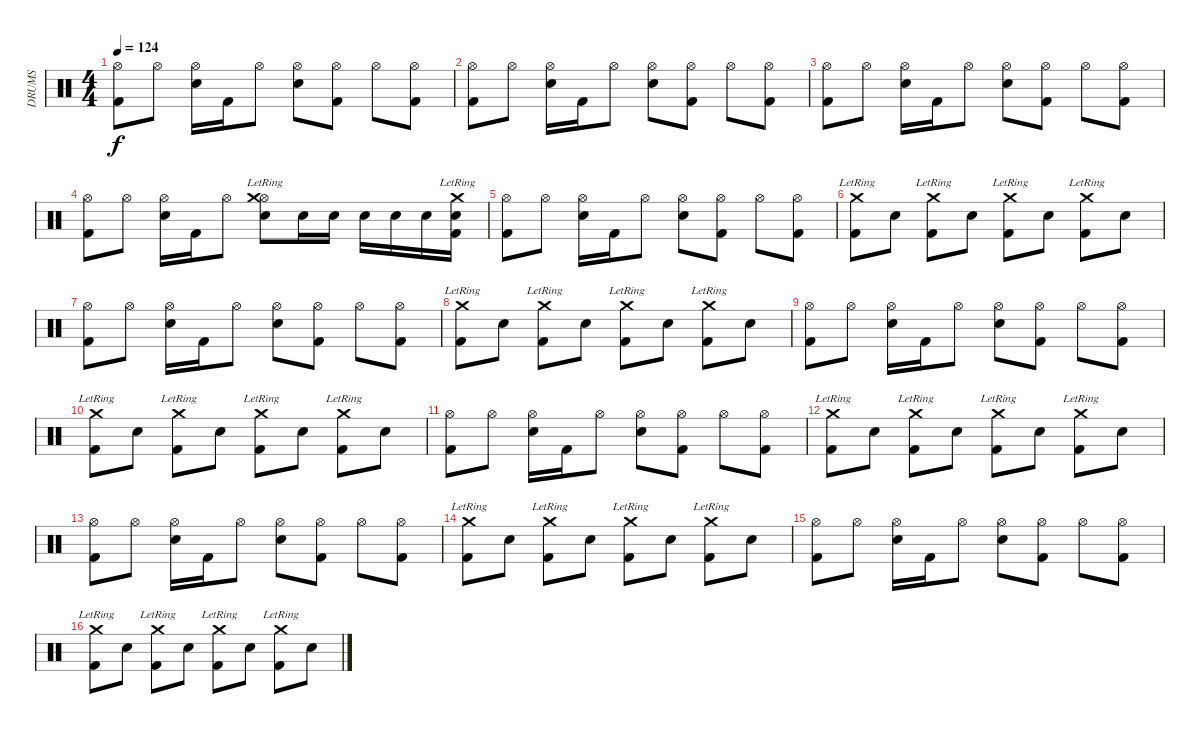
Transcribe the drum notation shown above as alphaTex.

\track ("DRUMS" "DRUMS") {instrument percussion}
\staff {score}
\articulation defaults
\ts (4 4)
\tempo 124
\clef neutral
\ks c
("Kick (hit) 2" "Hi-Hat (open)").8{dy f} "Hi-Hat (open)".8 ("Snare (hit) 2" "Hi-Hat (open)").16 "Kick (hit) 2".16 "Hi-Hat (open)".8 ("Snare (hit) 2" "Hi-Hat (open)").8 ("Kick (hit) 2" "Hi-Hat (open)").8 "Hi-Hat (open)".8 ("Kick (hit) 2" "Hi-Hat (open)").8 |
("Kick (hit) 2" "Hi-Hat (open)").8 "Hi-Hat (open)".8 ("Snare (hit) 2" "Hi-Hat (open)").16 "Kick (hit) 2".16 "Hi-Hat (open)".8 ("Snare (hit) 2" "Hi-Hat (open)").8 ("Kick (hit) 2" "Hi-Hat (open)").8 "Hi-Hat (open)".8 ("Kick (hit) 2" "Hi-Hat (open)").8 |
("Kick (hit) 2" "Hi-Hat (open)").8 "Hi-Hat (open)".8 ("Snare (hit) 2" "Hi-Hat (open)").16 "Kick (hit) 2".16 "Hi-Hat (open)".8 ("Snare (hit) 2" "Hi-Hat (open)").8 ("Kick (hit) 2" "Hi-Hat (open)").8 "Hi-Hat (open)".8 ("Kick (hit) 2" "Hi-Hat (open)").8 |
("Kick (hit) 2" "Hi-Hat (open)").8 "Hi-Hat (open)".8 ("Snare (hit) 2" "Hi-Hat (open)").16 "Kick (hit) 2".16 "Hi-Hat (open)".8 ("Snare (hit) 2" "Hi-Hat (open)" "Crash medium (hit)"{lr}).8 "Snare (hit) 2".16 "Snare (hit) 2".16 "Snare (hit) 2".16 "Snare (hit) 2".16 "Snare (hit) 2".16 ("Kick (hit) 2" "Snare (hit) 2" "Crash medium (hit)"{lr}).16 |
("Kick (hit) 2" "Hi-Hat (open)").8 "Hi-Hat (open)".8 ("Snare (hit) 2" "Hi-Hat (open)").16 "Kick (hit) 2".16 "Hi-Hat (open)".8 ("Snare (hit) 2" "Hi-Hat (open)").8 ("Kick (hit) 2" "Hi-Hat (open)").8 "Hi-Hat (open)".8 ("Kick (hit) 2" "Hi-Hat (open)").8 |
("Kick (hit) 2" "Crash medium (hit)"{lr}).8 "Snare (hit) 2".8 ("Kick (hit) 2" "Crash medium (hit)"{lr}).8 "Snare (hit) 2".8 ("Kick (hit) 2" "Crash medium (hit)"{lr}).8 "Snare (hit) 2".8 ("Kick (hit) 2" "Crash medium (hit)"{lr}).8 "Snare (hit) 2".8 |
("Kick (hit) 2" "Hi-Hat (open)").8 "Hi-Hat (open)".8 ("Snare (hit) 2" "Hi-Hat (open)").16 "Kick (hit) 2".16 "Hi-Hat (open)".8 ("Snare (hit) 2" "Hi-Hat (open)").8 ("Kick (hit) 2" "Hi-Hat (open)").8 "Hi-Hat (open)".8 ("Kick (hit) 2" "Hi-Hat (open)").8 |
("Kick (hit) 2" "Crash medium (hit)"{lr}).8 "Snare (hit) 2".8 ("Kick (hit) 2" "Crash medium (hit)"{lr}).8 "Snare (hit) 2".8 ("Kick (hit) 2" "Crash medium (hit)"{lr}).8 "Snare (hit) 2".8 ("Kick (hit) 2" "Crash medium (hit)"{lr}).8 "Snare (hit) 2".8 |
("Kick (hit) 2" "Hi-Hat (open)").8 "Hi-Hat (open)".8 ("Snare (hit) 2" "Hi-Hat (open)").16 "Kick (hit) 2".16 "Hi-Hat (open)".8 ("Snare (hit) 2" "Hi-Hat (open)").8 ("Kick (hit) 2" "Hi-Hat (open)").8 "Hi-Hat (open)".8 ("Kick (hit) 2" "Hi-Hat (open)").8 |
("Kick (hit) 2" "Crash medium (hit)"{lr}).8 "Snare (hit) 2".8 ("Kick (hit) 2" "Crash medium (hit)"{lr}).8 "Snare (hit) 2".8 ("Kick (hit) 2" "Crash medium (hit)"{lr}).8 "Snare (hit) 2".8 ("Kick (hit) 2" "Crash medium (hit)"{lr}).8 "Snare (hit) 2".8 |
("Kick (hit) 2" "Hi-Hat (open)").8 "Hi-Hat (open)".8 ("Snare (hit) 2" "Hi-Hat (open)").16 "Kick (hit) 2".16 "Hi-Hat (open)".8 ("Snare (hit) 2" "Hi-Hat (open)").8 ("Kick (hit) 2" "Hi-Hat (open)").8 "Hi-Hat (open)".8 ("Kick (hit) 2" "Hi-Hat (open)").8 |
("Kick (hit) 2" "Crash medium (hit)"{lr}).8 "Snare (hit) 2".8 ("Kick (hit) 2" "Crash medium (hit)"{lr}).8 "Snare (hit) 2".8 ("Kick (hit) 2" "Crash medium (hit)"{lr}).8 "Snare (hit) 2".8 ("Kick (hit) 2" "Crash medium (hit)"{lr}).8 "Snare (hit) 2".8 |
("Kick (hit) 2" "Hi-Hat (open)").8 "Hi-Hat (open)".8 ("Snare (hit) 2" "Hi-Hat (open)").16 "Kick (hit) 2".16 "Hi-Hat (open)".8 ("Snare (hit) 2" "Hi-Hat (open)").8 ("Kick (hit) 2" "Hi-Hat (open)").8 "Hi-Hat (open)".8 ("Kick (hit) 2" "Hi-Hat (open)").8 |
("Kick (hit) 2" "Crash medium (hit)"{lr}).8 "Snare (hit) 2".8 ("Kick (hit) 2" "Crash medium (hit)"{lr}).8 "Snare (hit) 2".8 ("Kick (hit) 2" "Crash medium (hit)"{lr}).8 "Snare (hit) 2".8 ("Kick (hit) 2" "Crash medium (hit)"{lr}).8 "Snare (hit) 2".8 |
("Kick (hit) 2" "Hi-Hat (open)").8 "Hi-Hat (open)".8 ("Snare (hit) 2" "Hi-Hat (open)").16 "Kick (hit) 2".16 "Hi-Hat (open)".8 ("Snare (hit) 2" "Hi-Hat (open)").8 ("Kick (hit) 2" "Hi-Hat (open)").8 "Hi-Hat (open)".8 ("Kick (hit) 2" "Hi-Hat (open)").8 |
("Kick (hit) 2" "Crash medium (hit)"{lr}).8 "Snare (hit) 2".8 ("Kick (hit) 2" "Crash medium (hit)"{lr}).8 "Snare (hit) 2".8 ("Kick (hit) 2" "Crash medium (hit)"{lr}).8 "Snare (hit) 2".8 ("Kick (hit) 2" "Crash medium (hit)"{lr}).8 "Snare (hit) 2".8
